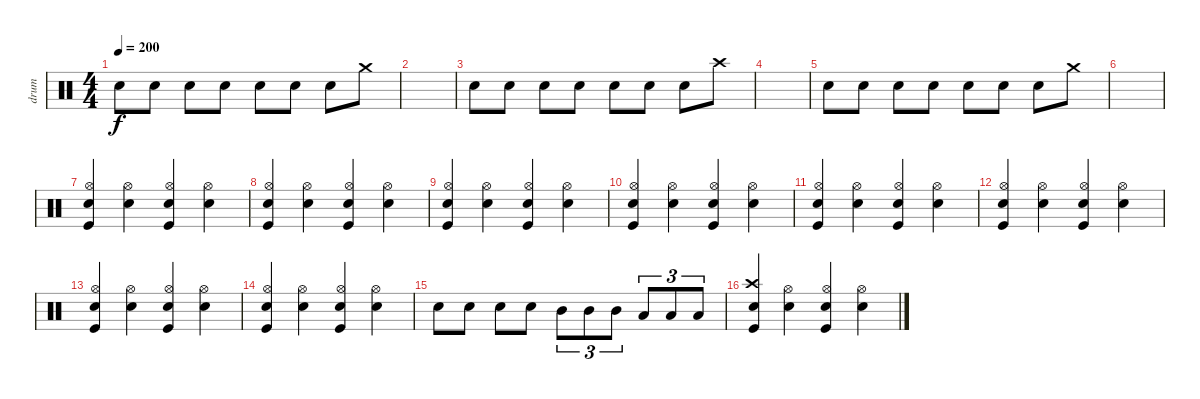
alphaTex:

\track ("drum" "drum") {instrument percussion}
\staff {score}
\articulation defaults
\ts (4 4)
\tempo 200
\clef neutral
\ks c "Snare (hit) 2".8{dy f} "Snare (hit) 2".8 "Snare (hit) 2".8 "Snare (hit) 2".8 "Snare (hit) 2".8 "Snare (hit) 2".8 "Snare (hit) 2".8 "Crash medium (hit)".8
|
|
"Snare (hit) 2".8 "Snare (hit) 2".8 "Snare (hit) 2".8 "Snare (hit) 2".8 "Snare (hit) 2".8 "Snare (hit) 2".8 "Snare (hit) 2".8 "Crash high (hit)".8 |
|
"Snare (hit) 2".8 "Snare (hit) 2".8 "Snare (hit) 2".8 "Snare (hit) 2".8 "Snare (hit) 2".8 "Snare (hit) 2".8 "Snare (hit) 2".8 "Crash medium (hit)".8 |
|
("Hi-Hat (open)" "Snare (hit) 2" "Kick (hit)").4 ("Hi-Hat (open)" "Snare (hit) 2").4 ("Hi-Hat (open)" "Snare (hit) 2" "Kick (hit)").4 ("Hi-Hat (open)" "Snare (hit) 2").4 |
("Hi-Hat (open)" "Snare (hit) 2" "Kick (hit)").4 ("Hi-Hat (open)" "Snare (hit) 2").4 ("Hi-Hat (open)" "Snare (hit) 2" "Kick (hit)").4 ("Hi-Hat (open)" "Snare (hit) 2").4 |
("Hi-Hat (open)" "Snare (hit) 2" "Kick (hit)").4 ("Hi-Hat (open)" "Snare (hit) 2").4 ("Hi-Hat (open)" "Snare (hit) 2" "Kick (hit)").4 ("Hi-Hat (open)" "Snare (hit) 2").4 |
("Hi-Hat (open)" "Snare (hit) 2" "Kick (hit)").4 ("Hi-Hat (open)" "Snare (hit) 2").4 ("Hi-Hat (open)" "Snare (hit) 2" "Kick (hit)").4 ("Hi-Hat (open)" "Snare (hit) 2").4 |
("Hi-Hat (open)" "Snare (hit) 2" "Kick (hit)").4 ("Hi-Hat (open)" "Snare (hit) 2").4 ("Hi-Hat (open)" "Snare (hit) 2" "Kick (hit)").4 ("Hi-Hat (open)" "Snare (hit) 2").4 |
("Hi-Hat (open)" "Snare (hit) 2" "Kick (hit)").4 ("Hi-Hat (open)" "Snare (hit) 2").4 ("Hi-Hat (open)" "Snare (hit) 2" "Kick (hit)").4 ("Hi-Hat (open)" "Snare (hit) 2").4 |
("Hi-Hat (open)" "Snare (hit) 2" "Kick (hit)").4 ("Hi-Hat (open)" "Snare (hit) 2").4 ("Hi-Hat (open)" "Snare (hit) 2" "Kick (hit)").4 ("Hi-Hat (open)" "Snare (hit) 2").4 |
("Hi-Hat (open)" "Snare (hit) 2" "Kick (hit)").4 ("Hi-Hat (open)" "Snare (hit) 2").4 ("Hi-Hat (open)" "Snare (hit) 2" "Kick (hit)").4 ("Hi-Hat (open)" "Snare (hit) 2").4 |
"Snare (hit) 2".8 "Snare (hit) 2".8 "Snare (hit) 2".8 "Snare (hit) 2".8 "Mid Tom (hit)".8{tu (3 2)} "Mid Tom (hit)".8{tu (3 2)} "Mid Tom (hit)".8{tu (3 2)} "Low Tom (hit)".8{tu (3 2)} "Low Tom (hit)".8{tu (3 2)} "Low Tom (hit)".8{tu (3 2)} |
("Crash high (hit)" "Snare (hit) 2" "Kick (hit)").4 ("Hi-Hat (open)" "Snare (hit) 2").4 ("Hi-Hat (open)" "Snare (hit) 2" "Kick (hit)").4 ("Hi-Hat (open)" "Snare (hit) 2").4
